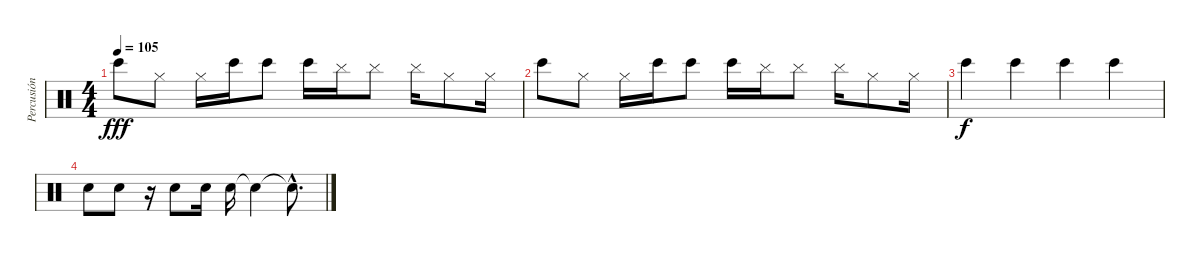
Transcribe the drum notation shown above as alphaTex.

\track ("Percusión" "Percusión") {instrument percussion}
\staff {score}
\articulation defaults
\ts (4 4)
\tempo 105
\clef neutral
\ks c "Bongo High (hit)".8{dy fff} "Hi-Hat (closed)".8 "Hi-Hat (closed)".16 "Bongo High (hit)".16 "Bongo High (hit)".8 "Bongo High (hit)".16 "Cymbal (hit)".16 "Cymbal (hit)".8 "Cymbal (hit)".16 "Hi-Hat (closed)".8 "Hi-Hat (closed)".16
|
"Bongo High (hit)".8 "Hi-Hat (closed)".8 "Hi-Hat (closed)".16 "Bongo High (hit)".16 "Bongo High (hit)".8 "Bongo High (hit)".16 "Cymbal (hit)".16 "Cymbal (hit)".8 "Cymbal (hit)".16 "Hi-Hat (closed)".8 "Hi-Hat (closed)".16 |
"Bongo High (hit)".4{dy f} "Bongo High (hit)".4 "Bongo High (hit)".4 "Bongo High (hit)".4 |
"Hand Clap (hit)".8 "Hand Clap (hit)".8 r.16 "Hand Clap (hit)".8 "Hand Clap (hit)".16 "Hand Clap (hit)".16 "Snare (hit)"{t}.4 "Snare (hit)"{hac t}.8{d}
